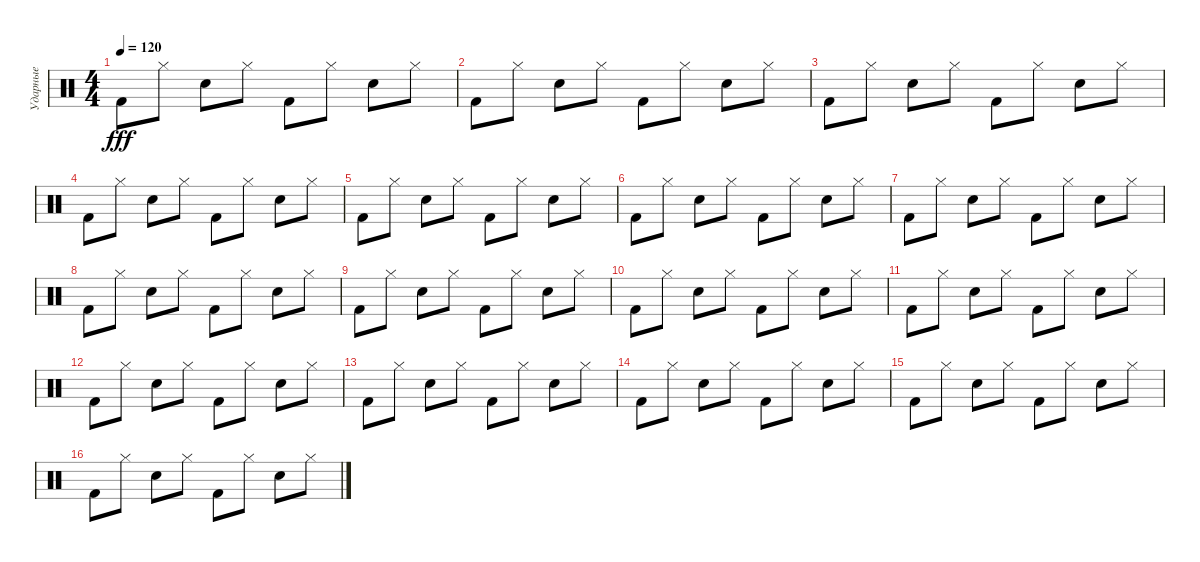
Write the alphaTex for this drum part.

\track ("Ударные" "Ударные") {instrument percussion}
\staff {score}
\articulation defaults
\ts (4 4)
\tempo 120
\clef neutral
\ks c "Kick (hit) 2".8{dy fff} "Hi-Hat (closed)".8 "Electric Snare (hit)".8 "Hi-Hat (closed)".8 "Kick (hit) 2".8 "Hi-Hat (closed)".8 "Electric Snare (hit)".8 "Hi-Hat (closed)".8
|
"Kick (hit) 2".8 "Hi-Hat (closed)".8 "Electric Snare (hit)".8 "Hi-Hat (closed)".8 "Kick (hit) 2".8 "Hi-Hat (closed)".8 "Electric Snare (hit)".8 "Hi-Hat (closed)".8 |
"Kick (hit) 2".8 "Hi-Hat (closed)".8 "Electric Snare (hit)".8 "Hi-Hat (closed)".8 "Kick (hit) 2".8 "Hi-Hat (closed)".8 "Electric Snare (hit)".8 "Hi-Hat (closed)".8 |
"Kick (hit) 2".8 "Hi-Hat (closed)".8 "Electric Snare (hit)".8 "Hi-Hat (closed)".8 "Kick (hit) 2".8 "Hi-Hat (closed)".8 "Electric Snare (hit)".8 "Hi-Hat (closed)".8 |
"Kick (hit) 2".8 "Hi-Hat (closed)".8 "Electric Snare (hit)".8 "Hi-Hat (closed)".8 "Kick (hit) 2".8 "Hi-Hat (closed)".8 "Electric Snare (hit)".8 "Hi-Hat (closed)".8 |
"Kick (hit) 2".8 "Hi-Hat (closed)".8 "Electric Snare (hit)".8 "Hi-Hat (closed)".8 "Kick (hit) 2".8 "Hi-Hat (closed)".8 "Electric Snare (hit)".8 "Hi-Hat (closed)".8 |
"Kick (hit) 2".8 "Hi-Hat (closed)".8 "Electric Snare (hit)".8 "Hi-Hat (closed)".8 "Kick (hit) 2".8 "Hi-Hat (closed)".8 "Electric Snare (hit)".8 "Hi-Hat (closed)".8 |
"Kick (hit) 2".8 "Hi-Hat (closed)".8 "Electric Snare (hit)".8 "Hi-Hat (closed)".8 "Kick (hit) 2".8 "Hi-Hat (closed)".8 "Electric Snare (hit)".8 "Hi-Hat (closed)".8 |
"Kick (hit) 2".8 "Hi-Hat (closed)".8 "Electric Snare (hit)".8 "Hi-Hat (closed)".8 "Kick (hit) 2".8 "Hi-Hat (closed)".8 "Electric Snare (hit)".8 "Hi-Hat (closed)".8 |
"Kick (hit) 2".8 "Hi-Hat (closed)".8 "Electric Snare (hit)".8 "Hi-Hat (closed)".8 "Kick (hit) 2".8 "Hi-Hat (closed)".8 "Electric Snare (hit)".8 "Hi-Hat (closed)".8 |
"Kick (hit) 2".8 "Hi-Hat (closed)".8 "Electric Snare (hit)".8 "Hi-Hat (closed)".8 "Kick (hit) 2".8 "Hi-Hat (closed)".8 "Electric Snare (hit)".8 "Hi-Hat (closed)".8 |
"Kick (hit) 2".8 "Hi-Hat (closed)".8 "Electric Snare (hit)".8 "Hi-Hat (closed)".8 "Kick (hit) 2".8 "Hi-Hat (closed)".8 "Electric Snare (hit)".8 "Hi-Hat (closed)".8 |
"Kick (hit) 2".8 "Hi-Hat (closed)".8 "Electric Snare (hit)".8 "Hi-Hat (closed)".8 "Kick (hit) 2".8 "Hi-Hat (closed)".8 "Electric Snare (hit)".8 "Hi-Hat (closed)".8 |
"Kick (hit) 2".8 "Hi-Hat (closed)".8 "Electric Snare (hit)".8 "Hi-Hat (closed)".8 "Kick (hit) 2".8 "Hi-Hat (closed)".8 "Electric Snare (hit)".8 "Hi-Hat (closed)".8 |
"Kick (hit) 2".8 "Hi-Hat (closed)".8 "Electric Snare (hit)".8 "Hi-Hat (closed)".8 "Kick (hit) 2".8 "Hi-Hat (closed)".8 "Electric Snare (hit)".8 "Hi-Hat (closed)".8 |
"Kick (hit) 2".8 "Hi-Hat (closed)".8 "Electric Snare (hit)".8 "Hi-Hat (closed)".8 "Kick (hit) 2".8 "Hi-Hat (closed)".8 "Electric Snare (hit)".8 "Hi-Hat (closed)".8
